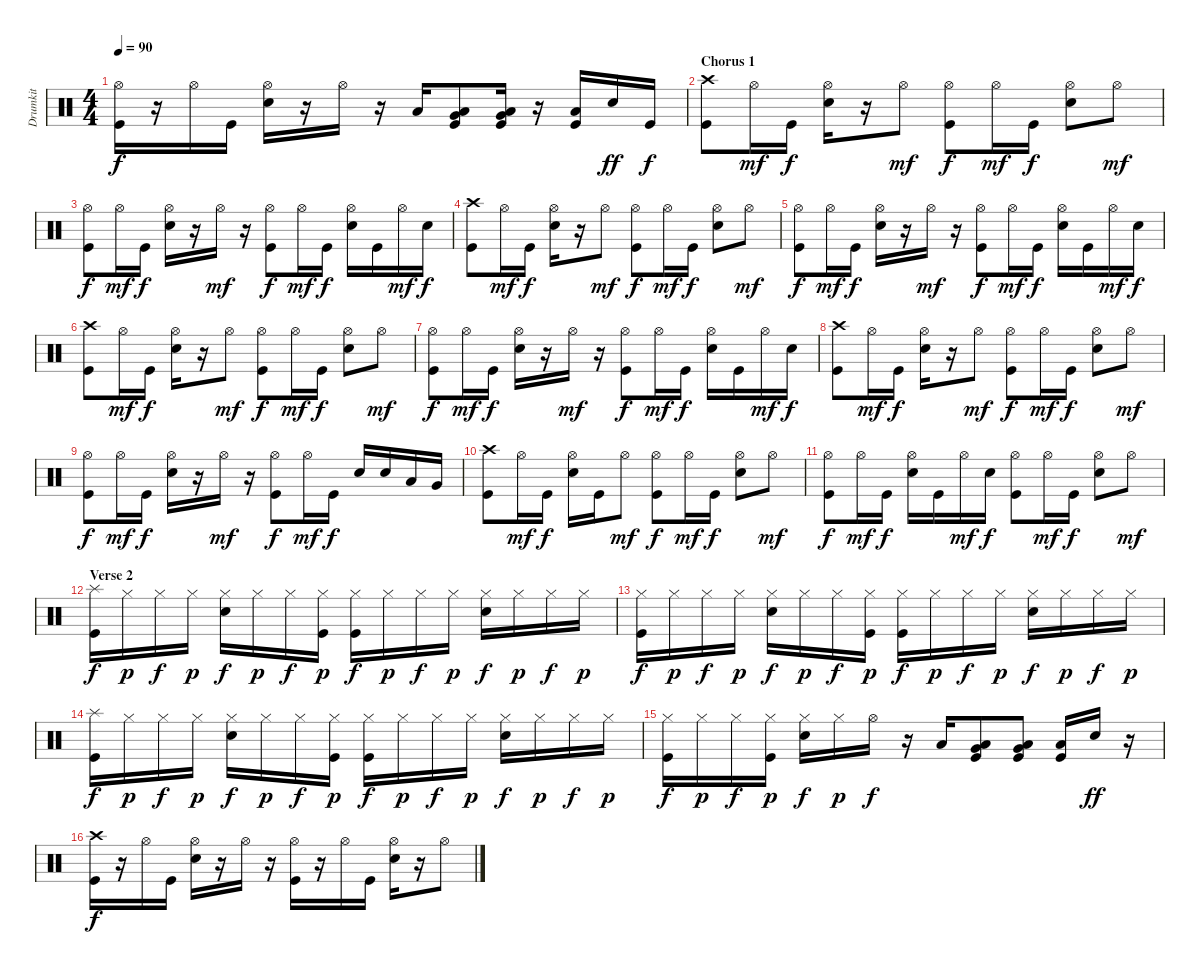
\track ("Drumkit" "Drumkit") {instrument percussion}
\staff {score}
\articulation defaults
\ts (4 4)
\tempo 90
\clef neutral
\ks c
("Hi-Hat (open)" "Kick (hit)").16{dy f} r.16 "Hi-Hat (open)".16 "Kick (hit)".16 ("Hi-Hat (open)" "Snare (hit) 2").16 r.16 "Hi-Hat (open)".16 r.16 "Low Tom (hit)".16 ("Low Floor Tom (hit)" "Very Low Tom (hit)" "Kick (hit)").8 ("Low Floor Tom (hit)" "Very Low Tom (hit)" "Kick (hit)").16 r.16 ("Low Floor Tom (hit)" "Kick (hit)").16 "Snare (hit) 2".16{dy ff} "Kick (hit)".16{dy f} |
\section ("" "Chorus 1")
("Crash high (hit)" "Kick (hit)").8 "Hi-Hat (open)".16{dy mf} "Kick (hit)".16{dy f} ("Hi-Hat (open)" "Snare (hit) 2").16 r.16 "Hi-Hat (open)".8{dy mf} ("Hi-Hat (open)" "Kick (hit)").8{dy f} "Hi-Hat (open)".16{dy mf} "Kick (hit)".16{dy f} ("Hi-Hat (open)" "Snare (hit) 2").8 "Hi-Hat (open)".8{dy mf} |
("Hi-Hat (open)" "Kick (hit)").8{dy f} "Hi-Hat (open)".16{dy mf} "Kick (hit)".16{dy f} ("Hi-Hat (open)" "Snare (hit) 2").16 r.16 "Hi-Hat (open)".16{dy mf} r.16 ("Hi-Hat (open)" "Kick (hit)").8{dy f} "Hi-Hat (open)".16{dy mf} "Kick (hit)".16{dy f} ("Hi-Hat (open)" "Snare (hit) 2").16 "Kick (hit)".16 "Hi-Hat (open)".16{dy mf} "Snare (hit) 2".16{dy f} |
("Crash high (hit)" "Kick (hit)").8 "Hi-Hat (open)".16{dy mf} "Kick (hit)".16{dy f} ("Hi-Hat (open)" "Snare (hit) 2").16 r.16 "Hi-Hat (open)".8{dy mf} ("Hi-Hat (open)" "Kick (hit)").8{dy f} "Hi-Hat (open)".16{dy mf} "Kick (hit)".16{dy f} ("Hi-Hat (open)" "Snare (hit) 2").8 "Hi-Hat (open)".8{dy mf} |
("Hi-Hat (open)" "Kick (hit)").8{dy f} "Hi-Hat (open)".16{dy mf} "Kick (hit)".16{dy f} ("Hi-Hat (open)" "Snare (hit) 2").16 r.16 "Hi-Hat (open)".16{dy mf} r.16 ("Hi-Hat (open)" "Kick (hit)").8{dy f} "Hi-Hat (open)".16{dy mf} "Kick (hit)".16{dy f} ("Hi-Hat (open)" "Snare (hit) 2").16 "Kick (hit)".16 "Hi-Hat (open)".16{dy mf} "Snare (hit) 2".16{dy f} |
("Crash high (hit)" "Kick (hit)").8 "Hi-Hat (open)".16{dy mf} "Kick (hit)".16{dy f} ("Hi-Hat (open)" "Snare (hit) 2").16 r.16 "Hi-Hat (open)".8{dy mf} ("Hi-Hat (open)" "Kick (hit)").8{dy f} "Hi-Hat (open)".16{dy mf} "Kick (hit)".16{dy f} ("Hi-Hat (open)" "Snare (hit) 2").8 "Hi-Hat (open)".8{dy mf} |
("Hi-Hat (open)" "Kick (hit)").8{dy f} "Hi-Hat (open)".16{dy mf} "Kick (hit)".16{dy f} ("Hi-Hat (open)" "Snare (hit) 2").16 r.16 "Hi-Hat (open)".16{dy mf} r.16 ("Hi-Hat (open)" "Kick (hit)").8{dy f} "Hi-Hat (open)".16{dy mf} "Kick (hit)".16{dy f} ("Hi-Hat (open)" "Snare (hit) 2").16 "Kick (hit)".16 "Hi-Hat (open)".16{dy mf} "Snare (hit) 2".16{dy f} |
("Crash high (hit)" "Kick (hit)").8 "Hi-Hat (open)".16{dy mf} "Kick (hit)".16{dy f} ("Hi-Hat (open)" "Snare (hit) 2").16 r.16 "Hi-Hat (open)".8{dy mf} ("Hi-Hat (open)" "Kick (hit)").8{dy f} "Hi-Hat (open)".16{dy mf} "Kick (hit)".16{dy f} ("Hi-Hat (open)" "Snare (hit) 2").8 "Hi-Hat (open)".8{dy mf} |
("Hi-Hat (open)" "Kick (hit)").8{dy f} "Hi-Hat (open)".16{dy mf} "Kick (hit)".16{dy f} ("Hi-Hat (open)" "Snare (hit) 2").16 r.16 "Hi-Hat (open)".16{dy mf} r.16 ("Hi-Hat (open)" "Kick (hit)").8{dy f} "Hi-Hat (open)".16{dy mf} "Kick (hit)".16{dy f} "Snare (hit) 2".16 "Snare (hit) 2".16 "Low Tom (hit)".16 "Very Low Tom (hit)".16 |
("Crash high (hit)" "Kick (hit)").8 "Hi-Hat (open)".16{dy mf} "Kick (hit)".16{dy f} ("Hi-Hat (open)" "Snare (hit) 2").16 "Kick (hit)".16 "Hi-Hat (open)".8{dy mf} ("Hi-Hat (open)" "Kick (hit)").8{dy f} "Hi-Hat (open)".16{dy mf} "Kick (hit)".16{dy f} ("Hi-Hat (open)" "Snare (hit) 2").8 "Hi-Hat (open)".8{dy mf} |
("Hi-Hat (open)" "Kick (hit)").8{dy f} "Hi-Hat (open)".16{dy mf} "Kick (hit)".16{dy f} ("Hi-Hat (open)" "Snare (hit) 2").16 "Kick (hit)".16 "Hi-Hat (open)".16{dy mf} "Snare (hit) 2".16{dy f} ("Hi-Hat (open)" "Kick (hit)").8 "Hi-Hat (open)".16{dy mf} "Kick (hit)".16{dy f} ("Hi-Hat (open)" "Snare (hit) 2").8 "Hi-Hat (open)".8{dy mf} |
\section ("" "Verse 2")
("Splash (hit)" "Kick (hit)").16{dy f} "Hi-Hat (closed)".16{dy p} "Hi-Hat (closed)".16{dy f} "Hi-Hat (closed)".16{dy p} ("Hi-Hat (closed)" "Snare (hit) 2").16{dy f} "Hi-Hat (closed)".16{dy p} "Hi-Hat (closed)".16{dy f} ("Hi-Hat (closed)" "Kick (hit)").16{dy p} ("Hi-Hat (closed)" "Kick (hit)").16{dy f} "Hi-Hat (closed)".16{dy p} "Hi-Hat (closed)".16{dy f} "Hi-Hat (closed)".16{dy p} ("Hi-Hat (closed)" "Snare (hit) 2").16{dy f} "Hi-Hat (closed)".16{dy p} "Hi-Hat (closed)".16{dy f} "Hi-Hat (closed)".16{dy p} |
("Hi-Hat (closed)" "Kick (hit)").16{dy f} "Hi-Hat (closed)".16{dy p} "Hi-Hat (closed)".16{dy f} "Hi-Hat (closed)".16{dy p} ("Hi-Hat (closed)" "Snare (hit) 2").16{dy f} "Hi-Hat (closed)".16{dy p} "Hi-Hat (closed)".16{dy f} ("Hi-Hat (closed)" "Kick (hit)").16{dy p} ("Hi-Hat (closed)" "Kick (hit)").16{dy f} "Hi-Hat (closed)".16{dy p} "Hi-Hat (closed)".16{dy f} "Hi-Hat (closed)".16{dy p} ("Hi-Hat (closed)" "Snare (hit) 2").16{dy f} "Hi-Hat (closed)".16{dy p} "Hi-Hat (closed)".16{dy f} "Hi-Hat (closed)".16{dy p} |
("Splash (hit)" "Kick (hit)").16{dy f} "Hi-Hat (closed)".16{dy p} "Hi-Hat (closed)".16{dy f} "Hi-Hat (closed)".16{dy p} ("Hi-Hat (closed)" "Snare (hit) 2").16{dy f} "Hi-Hat (closed)".16{dy p} "Hi-Hat (closed)".16{dy f} ("Hi-Hat (closed)" "Kick (hit)").16{dy p} ("Hi-Hat (closed)" "Kick (hit)").16{dy f} "Hi-Hat (closed)".16{dy p} "Hi-Hat (closed)".16{dy f} "Hi-Hat (closed)".16{dy p} ("Hi-Hat (closed)" "Snare (hit) 2").16{dy f} "Hi-Hat (closed)".16{dy p} "Hi-Hat (closed)".16{dy f} "Hi-Hat (closed)".16{dy p} |
("Hi-Hat (closed)" "Kick (hit)").16{dy f} "Hi-Hat (closed)".16{dy p} "Hi-Hat (closed)".16{dy f} ("Hi-Hat (closed)" "Kick (hit)").16{dy p} ("Hi-Hat (closed)" "Snare (hit) 2").16{dy f} "Hi-Hat (closed)".16{dy p} "Hi-Hat (open)".16{dy f} r.16 "Low Tom (hit)".16 ("Low Floor Tom (hit)" "Very Low Tom (hit)" "Kick (hit)").8 ("Low Floor Tom (hit)" "Very Low Tom (hit)" "Kick (hit)").8 ("Low Floor Tom (hit)" "Kick (hit)").16 "Snare (hit) 2".16{dy ff} r.16 |
("Crash high (hit)" "Kick (hit)").16{dy f} r.16 "Hi-Hat (open)".16 "Kick (hit)".16 ("Hi-Hat (open)" "Snare (hit) 2").16 r.16 "Hi-Hat (open)".16 r.16 ("Hi-Hat (open)" "Kick (hit)").16 r.16 "Hi-Hat (open)".16 "Kick (hit)".16 ("Hi-Hat (open)" "Snare (hit) 2").16 r.16 "Hi-Hat (open)".8
